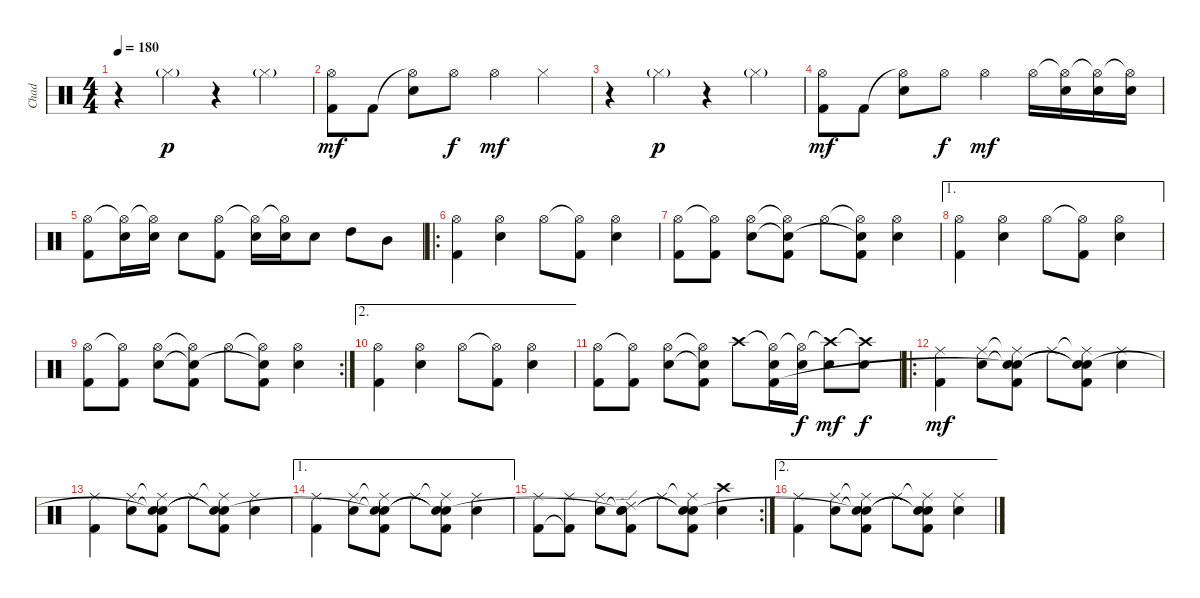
\track ("Chad" "Chad") {instrument percussion}
\staff {score}
\articulation defaults
\ts (4 4)
\tempo 180
\clef neutral
\ks c
r.4{dy mf} "Hi-Hat (closed)"{g}.4{dy p} r.4 "Hi-Hat (closed)"{g}.4 |
("Hi-Hat (open)" "Kick (hit) 2").8{dy mf} "Kick (hit) 2".8 ("Hi-Hat (open)"{t} "Snare (hit) 2").8 "Hi-Hat (open)".8{dy f} "Hi-Hat (open)".4{dy mf} "Hi-Hat (closed)".4 |
r.4 "Hi-Hat (closed)"{g}.4{dy p} r.4 "Hi-Hat (closed)"{g}.4 |
("Hi-Hat (open)" "Kick (hit) 2").8{dy mf} "Kick (hit) 2".8 ("Hi-Hat (open)"{t} "Snare (hit) 2").8 "Hi-Hat (open)".8{dy f} "Hi-Hat (open)".4{dy mf} "Hi-Hat (open)".16 ("Hi-Hat (open)"{t} "Snare (hit) 2").16 ("Hi-Hat (open)"{t} "Snare (hit) 2").16 ("Hi-Hat (open)"{t} "Snare (hit) 2").16 |
("Hi-Hat (open)" "Kick (hit) 2").8 ("Hi-Hat (open)"{t} "Snare (hit) 2").16 ("Hi-Hat (open)"{t} "Snare (hit) 2").16 "Snare (hit) 2".8 ("Hi-Hat (open)" "Kick (hit) 2").8 ("Hi-Hat (open)"{t} "Snare (hit) 2").16 ("Hi-Hat (open)"{t} "Snare (hit) 2").16 "Snare (hit) 2".8 "High Tom (hit)".8 "Mid Tom (hit)".8 |
\ro
("Hi-Hat (open)" "Kick (hit) 2").4 ("Hi-Hat (open)" "Snare (hit) 2").4 "Hi-Hat (open)".8 ("Hi-Hat (open)"{t} "Kick (hit) 2").8 ("Hi-Hat (open)" "Snare (hit) 2").4 |
("Hi-Hat (open)" "Kick (hit) 2").8 ("Hi-Hat (open)"{t} "Kick (hit) 2").8 ("Hi-Hat (open)" "Snare (hit) 2").8 ("Hi-Hat (open)"{t} "Snare (hit) 2"{t} "Kick (hit) 2").8 "Hi-Hat (open)".8 ("Hi-Hat (open)"{t} "Snare (hit) 2"{t} "Kick (hit) 2").8 ("Hi-Hat (open)" "Snare (hit) 2").4 |
\ae 1
("Hi-Hat (open)" "Kick (hit) 2").4 ("Hi-Hat (open)" "Snare (hit) 2").4 "Hi-Hat (open)".8 ("Hi-Hat (open)"{t} "Kick (hit) 2").8 ("Hi-Hat (open)" "Snare (hit) 2").4 |
\rc 2
("Hi-Hat (open)" "Kick (hit) 2").8 ("Hi-Hat (open)"{t} "Kick (hit) 2").8 ("Hi-Hat (open)" "Snare (hit) 2").8 ("Hi-Hat (open)"{t} "Snare (hit) 2"{t} "Kick (hit) 2").8 "Hi-Hat (open)".8 ("Hi-Hat (open)"{t} "Snare (hit) 2"{t} "Kick (hit) 2").8 ("Hi-Hat (open)" "Snare (hit) 2").4 |
\ae 2
("Hi-Hat (open)" "Kick (hit) 2").4 ("Hi-Hat (open)" "Snare (hit) 2").4 "Hi-Hat (open)".8 ("Hi-Hat (open)"{t} "Kick (hit) 2").8 ("Hi-Hat (open)" "Snare (hit) 2").4 |
("Hi-Hat (open)" "Kick (hit) 2").8 ("Hi-Hat (open)"{t} "Kick (hit) 2").8 ("Hi-Hat (open)" "Snare (hit) 2").8 ("Hi-Hat (open)"{t} "Snare (hit) 2"{t} "Kick (hit) 2").8 "Crash high (hit)".8 ("Hi-Hat (open)"{t} "Snare (hit) 2" "Kick (hit) 2").16 ("Hi-Hat (open)"{t} "Snare (hit) 2").16{dy f} ("Crash high (hit)"{t} "Snare (hit) 2").8{dy mf} ("Crash high (hit)"{t} "Snare (hit) 2").8{dy f} |
\ro
("Ride (middle)" "Kick (hit) 2").4{dy mf} ("Ride (middle)" "Snare (hit) 2").8 ("Ride (middle)"{t} "Snare (hit)"{t} "Snare (hit) 2"{t} "Kick (hit) 2").8 "Ride (middle)".8 ("Ride (middle)"{t} "Snare (hit)"{t} "Snare (hit) 2"{t} "Kick (hit) 2").8 ("Ride (middle)" "Snare (hit) 2").4 |
("Ride (middle)" "Kick (hit) 2").4 ("Ride (middle)" "Snare (hit) 2").8 ("Ride (middle)"{t} "Snare (hit)"{t} "Snare (hit) 2"{t} "Kick (hit) 2").8 "Ride (middle)".8 ("Ride (middle)"{t} "Snare (hit)"{t} "Snare (hit) 2"{t} "Kick (hit) 2").8 ("Ride (middle)" "Snare (hit) 2").4 |
\ae 1
("Ride (middle)" "Kick (hit) 2").4 ("Ride (middle)" "Snare (hit) 2").8 ("Ride (middle)"{t} "Snare (hit)"{t} "Snare (hit) 2"{t} "Kick (hit) 2").8 "Ride (middle)".8 ("Ride (middle)"{t} "Snare (hit)"{t} "Snare (hit) 2"{t} "Kick (hit) 2").8 ("Ride (middle)" "Snare (hit) 2").4 |
\rc 2
("Ride (middle)" "Kick (hit) 2").8 ("Ride (middle)" "Kick (hit) 2"{t}).8 ("Ride (middle)" "Snare (hit) 2").8 ("Ride (edge) 2" "Snare (hit)"{t} "Snare (hit) 2"{t} "Kick (hit) 2").8 "Ride (middle)".8 ("Ride (middle)"{t} "Snare (hit)"{t} "Snare (hit) 2"{t} "Kick (hit) 2").8 ("Crash high (hit)" "Snare (hit) 2").4 |
\ae 2
("Ride (middle)" "Kick (hit) 2").4 ("Ride (middle)" "Snare (hit) 2").8 ("Ride (middle)"{t} "Snare (hit)"{t} "Snare (hit) 2"{t} "Kick (hit) 2").8 "Ride (middle)".8 ("Ride (middle)"{t} "Snare (hit)"{t} "Snare (hit) 2"{t} "Kick (hit) 2").8 ("Ride (middle)" "Snare (hit) 2").4
